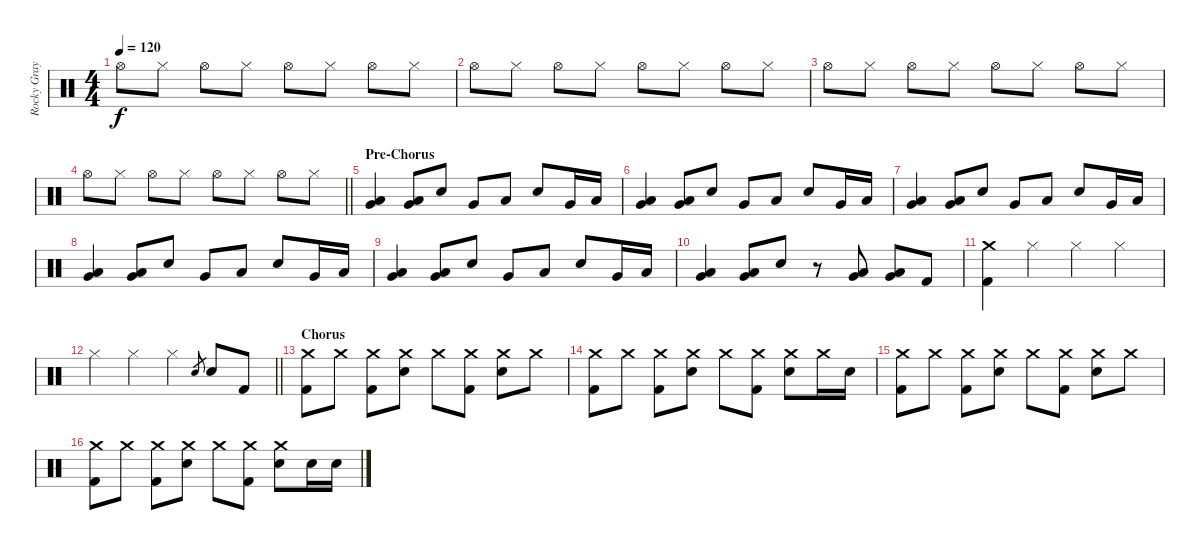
\track ("Rocky Gray" "Rocky Gray") {instrument percussion}
\staff {score}
\articulation defaults
\ts (4 4)
\tempo 120
\clef neutral
\ks c "Hi-Hat (open)".8{dy f} "Hi-Hat (closed)".8 "Hi-Hat (open)".8 "Hi-Hat (closed)".8 "Hi-Hat (open)".8 "Hi-Hat (closed)".8 "Hi-Hat (open)".8 "Hi-Hat (closed)".8
|
"Hi-Hat (open)".8 "Hi-Hat (closed)".8 "Hi-Hat (open)".8 "Hi-Hat (closed)".8 "Hi-Hat (open)".8 "Hi-Hat (closed)".8 "Hi-Hat (open)".8 "Hi-Hat (closed)".8 |
"Hi-Hat (open)".8 "Hi-Hat (closed)".8 "Hi-Hat (open)".8 "Hi-Hat (closed)".8 "Hi-Hat (open)".8 "Hi-Hat (closed)".8 "Hi-Hat (open)".8 "Hi-Hat (closed)".8 |
\barLineRight lightlight "Hi-Hat (open)".8 "Hi-Hat (closed)".8 "Hi-Hat (open)".8 "Hi-Hat (closed)".8 "Hi-Hat (open)".8 "Hi-Hat (closed)".8 "Hi-Hat (open)".8 "Hi-Hat (closed)".8
|
\section ("" "Pre-Chorus")
("Low Floor Tom (hit)" "Very Low Tom (hit)").4 ("Low Floor Tom (hit)" "Very Low Tom (hit)").8 "Electric Snare (hit)".8 "Very Low Tom (hit)".8 "Low Floor Tom (hit)".8 "Electric Snare (hit)".8 "Very Low Tom (hit)".16 "Low Floor Tom (hit)".16 |
("Low Floor Tom (hit)" "Very Low Tom (hit)").4 ("Low Floor Tom (hit)" "Very Low Tom (hit)").8 "Electric Snare (hit)".8 "Very Low Tom (hit)".8 "Low Floor Tom (hit)".8 "Electric Snare (hit)".8 "Very Low Tom (hit)".16 "Low Floor Tom (hit)".16 |
("Low Floor Tom (hit)" "Very Low Tom (hit)").4 ("Low Floor Tom (hit)" "Very Low Tom (hit)").8 "Electric Snare (hit)".8 "Very Low Tom (hit)".8 "Low Floor Tom (hit)".8 "Electric Snare (hit)".8 "Very Low Tom (hit)".16 "Low Floor Tom (hit)".16 |
("Low Floor Tom (hit)" "Very Low Tom (hit)").4 ("Low Floor Tom (hit)" "Very Low Tom (hit)").8 "Electric Snare (hit)".8 "Very Low Tom (hit)".8 "Low Floor Tom (hit)".8 "Electric Snare (hit)".8 "Very Low Tom (hit)".16 "Low Floor Tom (hit)".16 |
("Low Floor Tom (hit)" "Very Low Tom (hit)").4 ("Low Floor Tom (hit)" "Very Low Tom (hit)").8 "Electric Snare (hit)".8 "Very Low Tom (hit)".8 "Low Floor Tom (hit)".8 "Electric Snare (hit)".8 "Very Low Tom (hit)".16 "Low Floor Tom (hit)".16 |
("Low Floor Tom (hit)" "Very Low Tom (hit)").4 ("Low Floor Tom (hit)" "Very Low Tom (hit)").8 "Electric Snare (hit)".8 r.8 ("Very Low Tom (hit)" "Low Tom (hit)").8 ("Low Floor Tom (hit)" "Very Low Tom (hit)").8 "Kick (hit) 2".8 |
("Crash medium (hit)" "Kick (hit) 2").4 "Hi-Hat (closed)".4 "Hi-Hat (closed)".4 "Hi-Hat (closed)".4 |
\barLineRight lightlight "Hi-Hat (closed)".4 "Hi-Hat (closed)".4 "Hi-Hat (closed)".4 "Electric Snare (hit)".8{gr} "Electric Snare (hit)".8 "Kick (hit) 2".8
|
\section ("" "Chorus")
("Crash medium (hit)" "Kick (hit) 2").8 "Crash medium (hit)".8 ("Crash medium (hit)" "Kick (hit) 2").8 ("Crash medium (hit)" "Electric Snare (hit)").8 "Crash medium (hit)".8 ("Crash medium (hit)" "Kick (hit) 2").8 ("Crash medium (hit)" "Electric Snare (hit)").8 "Crash medium (hit)".8 |
("Crash medium (hit)" "Kick (hit) 2").8 "Crash medium (hit)".8 ("Crash medium (hit)" "Kick (hit) 2").8 ("Crash medium (hit)" "Electric Snare (hit)").8 "Crash medium (hit)".8 ("Crash medium (hit)" "Kick (hit) 2").8 ("Crash medium (hit)" "Electric Snare (hit)").8 "Crash medium (hit)".16 "Electric Snare (hit)".16 |
("Crash medium (hit)" "Kick (hit) 2").8 "Crash medium (hit)".8 ("Crash medium (hit)" "Kick (hit) 2").8 ("Crash medium (hit)" "Electric Snare (hit)").8 "Crash medium (hit)".8 ("Crash medium (hit)" "Kick (hit) 2").8 ("Crash medium (hit)" "Electric Snare (hit)").8 "Crash medium (hit)".8 |
("Crash medium (hit)" "Kick (hit) 2").8 "Crash medium (hit)".8 ("Crash medium (hit)" "Kick (hit) 2").8 ("Crash medium (hit)" "Electric Snare (hit)").8 "Crash medium (hit)".8 ("Crash medium (hit)" "Kick (hit) 2").8 ("Crash medium (hit)" "Electric Snare (hit)").8 "Electric Snare (hit)".16 "Electric Snare (hit)".16
